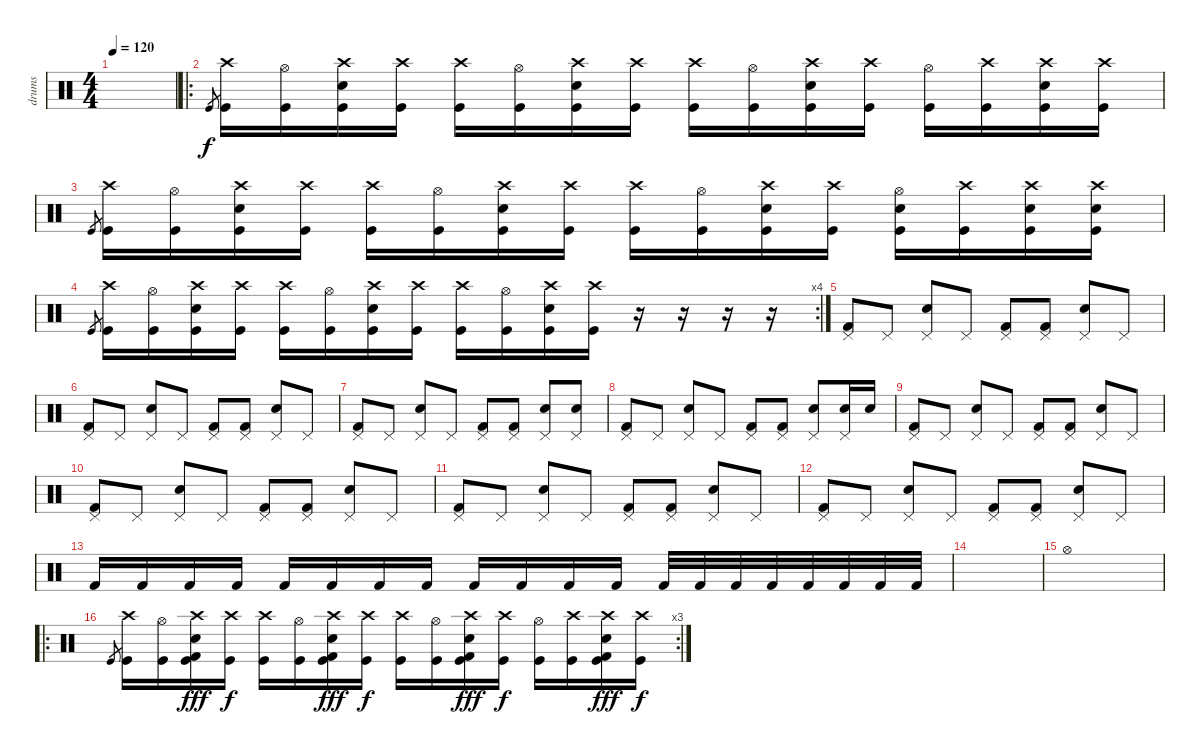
\track ("drums" "drums") {instrument percussion}
\staff {score}
\articulation defaults
\ts (4 4)
\tempo 120
\clef neutral
\ks c
|
\ro "Kick (hit)".8{gr dy f}
("Crash high (hit)" "Kick (hit)").16 ("Hi-Hat (open)" "Kick (hit)").16 ("Crash high (hit)" "Electric Snare (hit)" "Kick (hit)").16 ("Crash high (hit)" "Kick (hit)").16 ("Crash high (hit)" "Kick (hit)").16 ("Hi-Hat (open)" "Kick (hit)").16 ("Crash high (hit)" "Electric Snare (hit)" "Kick (hit)").16 ("Crash high (hit)" "Kick (hit)").16 ("Crash high (hit)" "Kick (hit)").16 ("Hi-Hat (open)" "Kick (hit)").16 ("Crash high (hit)" "Electric Snare (hit)" "Kick (hit)").16 ("Crash high (hit)" "Kick (hit)").16 ("Hi-Hat (open)" "Kick (hit)").16 ("Crash high (hit)" "Kick (hit)").16 ("Crash high (hit)" "Electric Snare (hit)" "Kick (hit)").16 ("Crash high (hit)" "Kick (hit)").16 |
"Kick (hit)".8{gr} ("Crash high (hit)" "Kick (hit)").16 ("Hi-Hat (open)" "Kick (hit)").16 ("Crash high (hit)" "Electric Snare (hit)" "Kick (hit)").16 ("Crash high (hit)" "Kick (hit)").16 ("Crash high (hit)" "Kick (hit)").16 ("Hi-Hat (open)" "Kick (hit)").16 ("Crash high (hit)" "Electric Snare (hit)" "Kick (hit)").16 ("Crash high (hit)" "Kick (hit)").16 ("Crash high (hit)" "Kick (hit)").16 ("Hi-Hat (open)" "Kick (hit)").16 ("Crash high (hit)" "Electric Snare (hit)" "Kick (hit)").16 ("Crash high (hit)" "Kick (hit)").16 ("Hi-Hat (open)" "Electric Snare (hit)" "Kick (hit)").16 ("Crash high (hit)" "Kick (hit)").16 ("Crash high (hit)" "Electric Snare (hit)" "Kick (hit)").16 ("Crash high (hit)" "Electric Snare (hit)" "Kick (hit)").16 |
\rc 4 "Kick (hit)".8{gr}
("Crash high (hit)" "Kick (hit)").16 ("Hi-Hat (open)" "Kick (hit)").16 ("Crash high (hit)" "Electric Snare (hit)" "Kick (hit)").16 ("Crash high (hit)" "Kick (hit)").16 ("Crash high (hit)" "Kick (hit)").16 ("Hi-Hat (open)" "Kick (hit)").16 ("Crash high (hit)" "Electric Snare (hit)" "Kick (hit)").16 ("Crash high (hit)" "Kick (hit)").16 ("Crash high (hit)" "Kick (hit)").16 ("Hi-Hat (open)" "Kick (hit)").16 ("Crash high (hit)" "Electric Snare (hit)" "Kick (hit)").16 ("Crash high (hit)" "Kick (hit)").16 r.16 r.16 r.16 r.16 |
("Pedal Hi-Hat (hit)" "Kick (hit) 2").8 "Pedal Hi-Hat (hit)".8 ("Pedal Hi-Hat (hit)" "Snare (hit) 2").8 "Pedal Hi-Hat (hit)".8 ("Pedal Hi-Hat (hit)" "Kick (hit) 2").8 ("Pedal Hi-Hat (hit)" "Kick (hit) 2").8 ("Pedal Hi-Hat (hit)" "Snare (hit) 2").8 "Pedal Hi-Hat (hit)".8 |
("Pedal Hi-Hat (hit)" "Kick (hit) 2").8 "Pedal Hi-Hat (hit)".8 ("Pedal Hi-Hat (hit)" "Snare (hit) 2").8 "Pedal Hi-Hat (hit)".8 ("Pedal Hi-Hat (hit)" "Kick (hit) 2").8 ("Pedal Hi-Hat (hit)" "Kick (hit) 2").8 ("Pedal Hi-Hat (hit)" "Snare (hit) 2").8 "Pedal Hi-Hat (hit)".8 |
("Pedal Hi-Hat (hit)" "Kick (hit) 2").8 "Pedal Hi-Hat (hit)".8 ("Pedal Hi-Hat (hit)" "Snare (hit) 2").8 "Pedal Hi-Hat (hit)".8 ("Pedal Hi-Hat (hit)" "Kick (hit) 2").8 ("Pedal Hi-Hat (hit)" "Kick (hit) 2").8 ("Pedal Hi-Hat (hit)" "Snare (hit) 2").8 ("Pedal Hi-Hat (hit)" "Snare (hit) 2").8 |
("Pedal Hi-Hat (hit)" "Kick (hit) 2").8 "Pedal Hi-Hat (hit)".8 ("Pedal Hi-Hat (hit)" "Snare (hit) 2").8 "Pedal Hi-Hat (hit)".8 ("Pedal Hi-Hat (hit)" "Kick (hit) 2").8 ("Pedal Hi-Hat (hit)" "Kick (hit) 2").8 ("Pedal Hi-Hat (hit)" "Snare (hit) 2").8 ("Pedal Hi-Hat (hit)" "Snare (hit) 2").16 "Snare (hit) 2".16 |
("Pedal Hi-Hat (hit)" "Kick (hit) 2").8 "Pedal Hi-Hat (hit)".8 ("Pedal Hi-Hat (hit)" "Snare (hit) 2").8 "Pedal Hi-Hat (hit)".8 ("Pedal Hi-Hat (hit)" "Kick (hit) 2").8 ("Pedal Hi-Hat (hit)" "Kick (hit) 2").8 ("Pedal Hi-Hat (hit)" "Snare (hit) 2").8 "Pedal Hi-Hat (hit)".8 |
("Pedal Hi-Hat (hit)" "Kick (hit) 2").8 "Pedal Hi-Hat (hit)".8 ("Pedal Hi-Hat (hit)" "Snare (hit) 2").8 "Pedal Hi-Hat (hit)".8 ("Pedal Hi-Hat (hit)" "Kick (hit) 2").8 ("Pedal Hi-Hat (hit)" "Kick (hit) 2").8 ("Pedal Hi-Hat (hit)" "Snare (hit) 2").8 "Pedal Hi-Hat (hit)".8 |
("Pedal Hi-Hat (hit)" "Kick (hit) 2").8 "Pedal Hi-Hat (hit)".8 ("Pedal Hi-Hat (hit)" "Snare (hit) 2").8 "Pedal Hi-Hat (hit)".8 ("Pedal Hi-Hat (hit)" "Kick (hit) 2").8 ("Pedal Hi-Hat (hit)" "Kick (hit) 2").8 ("Pedal Hi-Hat (hit)" "Snare (hit) 2").8 "Pedal Hi-Hat (hit)".8 |
("Pedal Hi-Hat (hit)" "Kick (hit) 2").8 "Pedal Hi-Hat (hit)".8 ("Pedal Hi-Hat (hit)" "Snare (hit) 2").8 "Pedal Hi-Hat (hit)".8 ("Pedal Hi-Hat (hit)" "Kick (hit) 2").8 ("Pedal Hi-Hat (hit)" "Kick (hit) 2").8 ("Pedal Hi-Hat (hit)" "Snare (hit) 2").8 "Pedal Hi-Hat (hit)".8 |
"Kick (hit) 2".16 "Kick (hit) 2".16 "Kick (hit) 2".16 "Kick (hit) 2".16 "Kick (hit) 2".16 "Kick (hit) 2".16 "Kick (hit) 2".16 "Kick (hit) 2".16 "Kick (hit) 2".16 "Kick (hit) 2".16 "Kick (hit) 2".16 "Kick (hit) 2".16 "Kick (hit) 2".32 "Kick (hit) 2".32 "Kick (hit) 2".32 "Kick (hit) 2".32 "Kick (hit) 2".32 "Kick (hit) 2".32 "Kick (hit) 2".32 "Kick (hit) 2".32 |
|
"Hi-Hat (open)".1 |
\ro
\rc 3 "Kick (hit)".8{gr}
("Crash high (hit)" "Kick (hit)").16 ("Hi-Hat (open)" "Kick (hit)").16 ("Crash high (hit)" "Kick (hit) 2" "Electric Snare (hit)" "Kick (hit)").16{dy fff} ("Crash high (hit)" "Kick (hit)").16{dy f} ("Crash high (hit)" "Kick (hit)").16 ("Hi-Hat (open)" "Kick (hit)").16 ("Crash high (hit)" "Kick (hit) 2" "Electric Snare (hit)" "Kick (hit)").16{dy fff} ("Crash high (hit)" "Kick (hit)").16{dy f} ("Crash high (hit)" "Kick (hit)").16 ("Hi-Hat (open)" "Kick (hit)").16 ("Crash high (hit)" "Kick (hit) 2" "Electric Snare (hit)" "Kick (hit)").16{dy fff} ("Crash high (hit)" "Kick (hit)").16{dy f} ("Hi-Hat (open)" "Kick (hit)").16 ("Crash high (hit)" "Kick (hit)").16 ("Crash high (hit)" "Kick (hit) 2" "Electric Snare (hit)" "Kick (hit)").16{dy fff} ("Crash high (hit)" "Kick (hit)").16{dy f}
